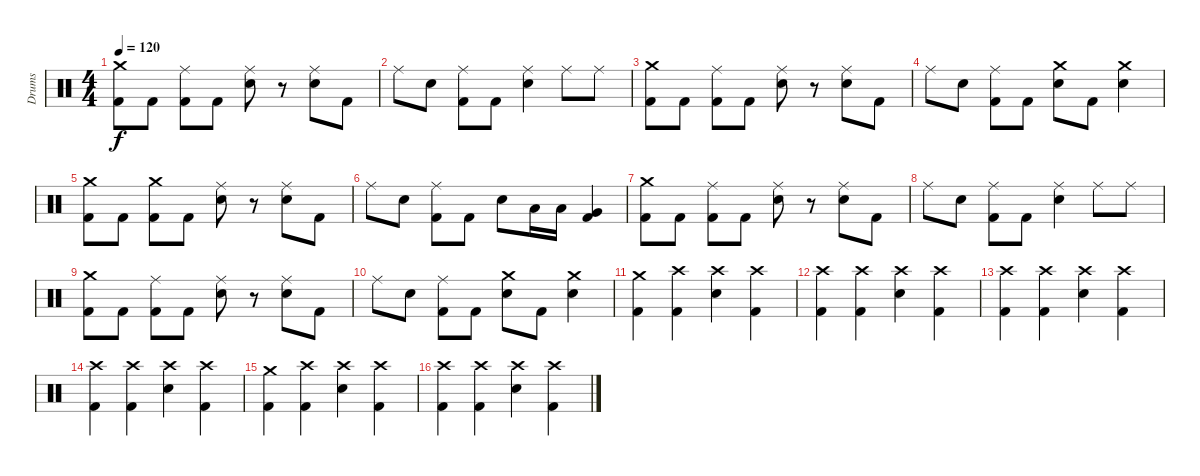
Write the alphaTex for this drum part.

\track ("Drums" "Drums") {instrument percussion}
\staff {score}
\articulation defaults
\ts (4 4)
\tempo 120
\clef neutral
\ks c
("Crash medium (hit)" "Kick (hit) 2").8{dy f} "Kick (hit) 2".8 ("Ride (middle)" "Kick (hit) 2").8 "Kick (hit) 2".8 ("Ride (middle)" "Electric Snare (hit)").8 r.8 ("Ride (middle)" "Electric Snare (hit)").8 "Kick (hit) 2".8 |
"Ride (middle)".8 "Electric Snare (hit)".8 ("Ride (middle)" "Kick (hit) 2").8 "Kick (hit) 2".8 ("Ride (middle)" "Electric Snare (hit)").4 "Ride (middle)".8 "Ride (middle)".8 |
("Crash medium (hit)" "Kick (hit) 2").8 "Kick (hit) 2".8 ("Ride (middle)" "Kick (hit) 2").8 "Kick (hit) 2".8 ("Ride (middle)" "Electric Snare (hit)").8 r.8 ("Ride (middle)" "Electric Snare (hit)").8 "Kick (hit) 2".8 |
"Ride (middle)".8 "Electric Snare (hit)".8 ("Ride (middle)" "Kick (hit) 2").8 "Kick (hit) 2".8 ("Crash medium (hit)" "Electric Snare (hit)").8 "Kick (hit) 2".8 ("Crash medium (hit)" "Electric Snare (hit)").4 |
("Crash medium (hit)" "Kick (hit) 2").8 "Kick (hit) 2".8 ("Crash medium (hit)" "Kick (hit) 2").8 "Kick (hit) 2".8 ("Ride (middle)" "Electric Snare (hit)").8 r.8 ("Ride (middle)" "Electric Snare (hit)").8 "Kick (hit) 2".8 |
"Ride (middle)".8 "Electric Snare (hit)".8 ("Ride (middle)" "Kick (hit) 2").8 "Kick (hit) 2".8 "Electric Snare (hit)".8 "Low Tom (hit)".16 "Low Tom (hit)".16 ("Very Low Tom (hit)" "Kick (hit) 2").4 |
("Crash medium (hit)" "Kick (hit) 2").8 "Kick (hit) 2".8 ("Ride (middle)" "Kick (hit) 2").8 "Kick (hit) 2".8 ("Ride (middle)" "Electric Snare (hit)").8 r.8 ("Ride (middle)" "Electric Snare (hit)").8 "Kick (hit) 2".8 |
"Ride (middle)".8 "Electric Snare (hit)".8 ("Ride (middle)" "Kick (hit) 2").8 "Kick (hit) 2".8 ("Ride (middle)" "Electric Snare (hit)").4 "Ride (middle)".8 "Ride (middle)".8 |
("Crash medium (hit)" "Kick (hit) 2").8 "Kick (hit) 2".8 ("Ride (middle)" "Kick (hit) 2").8 "Kick (hit) 2".8 ("Ride (middle)" "Electric Snare (hit)").8 r.8 ("Ride (middle)" "Electric Snare (hit)").8 "Kick (hit) 2".8 |
"Ride (middle)".8 "Electric Snare (hit)".8 ("Ride (middle)" "Kick (hit) 2").8 "Kick (hit) 2".8 ("Crash medium (hit)" "Electric Snare (hit)").8 "Kick (hit) 2".8 ("Crash medium (hit)" "Electric Snare (hit)").4 |
("Crash medium (hit)" "Kick (hit) 2").4 ("Crash high (hit)" "Kick (hit) 2").4 ("Crash high (hit)" "Electric Snare (hit)").4 ("Crash high (hit)" "Kick (hit) 2").4 |
("Crash high (hit)" "Kick (hit) 2").4 ("Crash high (hit)" "Kick (hit) 2").4 ("Crash high (hit)" "Electric Snare (hit)").4 ("Crash high (hit)" "Kick (hit) 2").4 |
("Crash high (hit)" "Kick (hit) 2").4 ("Crash high (hit)" "Kick (hit) 2").4 ("Crash high (hit)" "Electric Snare (hit)").4 ("Crash high (hit)" "Kick (hit) 2").4 |
("Crash high (hit)" "Kick (hit) 2").4 ("Crash high (hit)" "Kick (hit) 2").4 ("Crash high (hit)" "Electric Snare (hit)").4 ("Crash high (hit)" "Kick (hit) 2").4 |
("Crash medium (hit)" "Kick (hit) 2").4 ("Crash high (hit)" "Kick (hit) 2").4 ("Crash high (hit)" "Electric Snare (hit)").4 ("Crash high (hit)" "Kick (hit) 2").4 |
("Crash high (hit)" "Kick (hit) 2").4 ("Crash high (hit)" "Kick (hit) 2").4 ("Crash high (hit)" "Electric Snare (hit)").4 ("Crash high (hit)" "Kick (hit) 2").4
